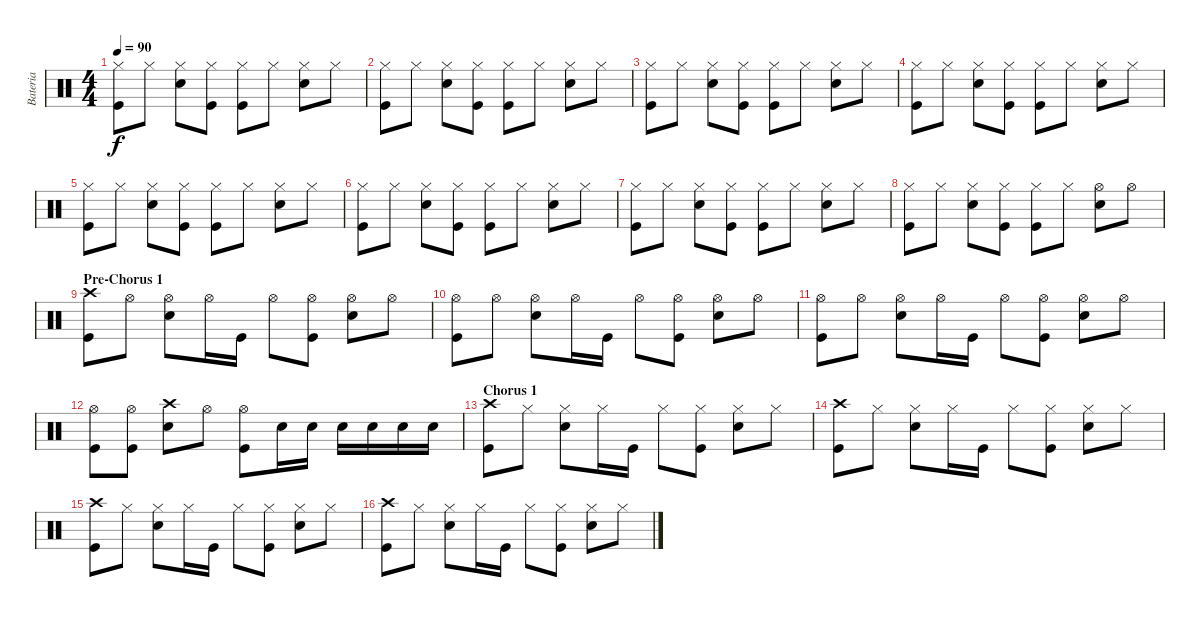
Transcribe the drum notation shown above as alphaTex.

\track ("Bateria" "Bateria") {instrument percussion}
\staff {score}
\articulation defaults
\ts (4 4)
\tempo 90
\clef neutral
\ks c
("Hi-Hat (closed)" "Kick (hit)").8{dy f} "Hi-Hat (closed)".8 ("Hi-Hat (closed)" "Snare (hit) 2").8 ("Hi-Hat (closed)" "Kick (hit)").8 ("Hi-Hat (closed)" "Kick (hit)").8 "Hi-Hat (closed)".8 ("Hi-Hat (closed)" "Snare (hit) 2").8 "Hi-Hat (closed)".8 |
("Hi-Hat (closed)" "Kick (hit)").8 "Hi-Hat (closed)".8 ("Hi-Hat (closed)" "Snare (hit) 2").8 ("Hi-Hat (closed)" "Kick (hit)").8 ("Hi-Hat (closed)" "Kick (hit)").8 "Hi-Hat (closed)".8 ("Hi-Hat (closed)" "Snare (hit) 2").8 "Hi-Hat (closed)".8 |
("Hi-Hat (closed)" "Kick (hit)").8 "Hi-Hat (closed)".8 ("Hi-Hat (closed)" "Snare (hit) 2").8 ("Hi-Hat (closed)" "Kick (hit)").8 ("Hi-Hat (closed)" "Kick (hit)").8 "Hi-Hat (closed)".8 ("Hi-Hat (closed)" "Snare (hit) 2").8 "Hi-Hat (closed)".8 |
("Hi-Hat (closed)" "Kick (hit)").8 "Hi-Hat (closed)".8 ("Hi-Hat (closed)" "Snare (hit) 2").8 ("Hi-Hat (closed)" "Kick (hit)").8 ("Hi-Hat (closed)" "Kick (hit)").8 "Hi-Hat (closed)".8 ("Hi-Hat (closed)" "Snare (hit) 2").8 "Hi-Hat (closed)".8 |
("Hi-Hat (closed)" "Kick (hit)").8 "Hi-Hat (closed)".8 ("Hi-Hat (closed)" "Snare (hit) 2").8 ("Hi-Hat (closed)" "Kick (hit)").8 ("Hi-Hat (closed)" "Kick (hit)").8 "Hi-Hat (closed)".8 ("Hi-Hat (closed)" "Snare (hit) 2").8 "Hi-Hat (closed)".8 |
("Hi-Hat (closed)" "Kick (hit)").8 "Hi-Hat (closed)".8 ("Hi-Hat (closed)" "Snare (hit) 2").8 ("Hi-Hat (closed)" "Kick (hit)").8 ("Hi-Hat (closed)" "Kick (hit)").8 "Hi-Hat (closed)".8 ("Hi-Hat (closed)" "Snare (hit) 2").8 "Hi-Hat (closed)".8 |
("Hi-Hat (closed)" "Kick (hit)").8 "Hi-Hat (closed)".8 ("Hi-Hat (closed)" "Snare (hit) 2").8 ("Hi-Hat (closed)" "Kick (hit)").8 ("Hi-Hat (closed)" "Kick (hit)").8 "Hi-Hat (closed)".8 ("Hi-Hat (closed)" "Snare (hit) 2").8 "Hi-Hat (closed)".8 |
("Hi-Hat (closed)" "Kick (hit)").8 "Hi-Hat (closed)".8 ("Hi-Hat (closed)" "Snare (hit) 2").8 ("Hi-Hat (closed)" "Kick (hit)").8 ("Hi-Hat (closed)" "Kick (hit)").8 "Hi-Hat (closed)".8 ("Hi-Hat (open)" "Snare (hit) 2").8 "Hi-Hat (open)".8 |
\section ("" "Pre-Chorus 1")
("Crash high (hit)" "Kick (hit)").8 "Hi-Hat (open)".8 ("Hi-Hat (open)" "Snare (hit) 2").8 "Hi-Hat (open)".16 "Kick (hit)".16 "Hi-Hat (open)".8 ("Hi-Hat (open)" "Kick (hit)").8 ("Hi-Hat (open)" "Snare (hit) 2").8 "Hi-Hat (open)".8 |
("Hi-Hat (open)" "Kick (hit)").8 "Hi-Hat (open)".8 ("Hi-Hat (open)" "Snare (hit) 2").8 "Hi-Hat (open)".16 "Kick (hit)".16 "Hi-Hat (open)".8 ("Hi-Hat (open)" "Kick (hit)").8 ("Hi-Hat (open)" "Snare (hit) 2").8 "Hi-Hat (open)".8 |
("Hi-Hat (open)" "Kick (hit)").8 "Hi-Hat (open)".8 ("Hi-Hat (open)" "Snare (hit) 2").8 "Hi-Hat (open)".16 "Kick (hit)".16 "Hi-Hat (open)".8 ("Hi-Hat (open)" "Kick (hit)").8 ("Hi-Hat (open)" "Snare (hit) 2").8 "Hi-Hat (open)".8 |
("Hi-Hat (open)" "Kick (hit)").8 ("Hi-Hat (open)" "Kick (hit)").8 ("Crash high (hit)" "Snare (hit) 2").8 "Hi-Hat (open)".8 ("Hi-Hat (open)" "Kick (hit)").8 "Snare (hit) 2".16 "Snare (hit) 2".16 "Snare (hit) 2".16 "Snare (hit) 2".16 "Snare (hit) 2".16 "Snare (hit) 2".16 |
\section ("" "Chorus 1")
("Crash high (hit)" "Kick (hit)").8 "Hi-Hat (closed)".8 ("Hi-Hat (closed)" "Snare (hit) 2").8 "Hi-Hat (closed)".16 "Kick (hit)".16 "Hi-Hat (closed)".8 ("Hi-Hat (closed)" "Kick (hit)").8 ("Hi-Hat (closed)" "Snare (hit) 2").8 "Hi-Hat (closed)".8 |
("Crash high (hit)" "Kick (hit)").8 "Hi-Hat (closed)".8 ("Hi-Hat (closed)" "Snare (hit) 2").8 "Hi-Hat (closed)".16 "Kick (hit)".16 "Hi-Hat (closed)".8 ("Hi-Hat (closed)" "Kick (hit)").8 ("Hi-Hat (closed)" "Snare (hit) 2").8 "Hi-Hat (closed)".8 |
("Crash high (hit)" "Kick (hit)").8 "Hi-Hat (closed)".8 ("Hi-Hat (closed)" "Snare (hit) 2").8 "Hi-Hat (closed)".16 "Kick (hit)".16 "Hi-Hat (closed)".8 ("Hi-Hat (closed)" "Kick (hit)").8 ("Hi-Hat (closed)" "Snare (hit) 2").8 "Hi-Hat (closed)".8 |
("Crash high (hit)" "Kick (hit)").8 "Hi-Hat (closed)".8 ("Hi-Hat (closed)" "Snare (hit) 2").8 "Hi-Hat (closed)".16 "Kick (hit)".16 "Hi-Hat (closed)".8 ("Hi-Hat (closed)" "Kick (hit)").8 ("Hi-Hat (closed)" "Snare (hit) 2").8 "Hi-Hat (closed)".8
